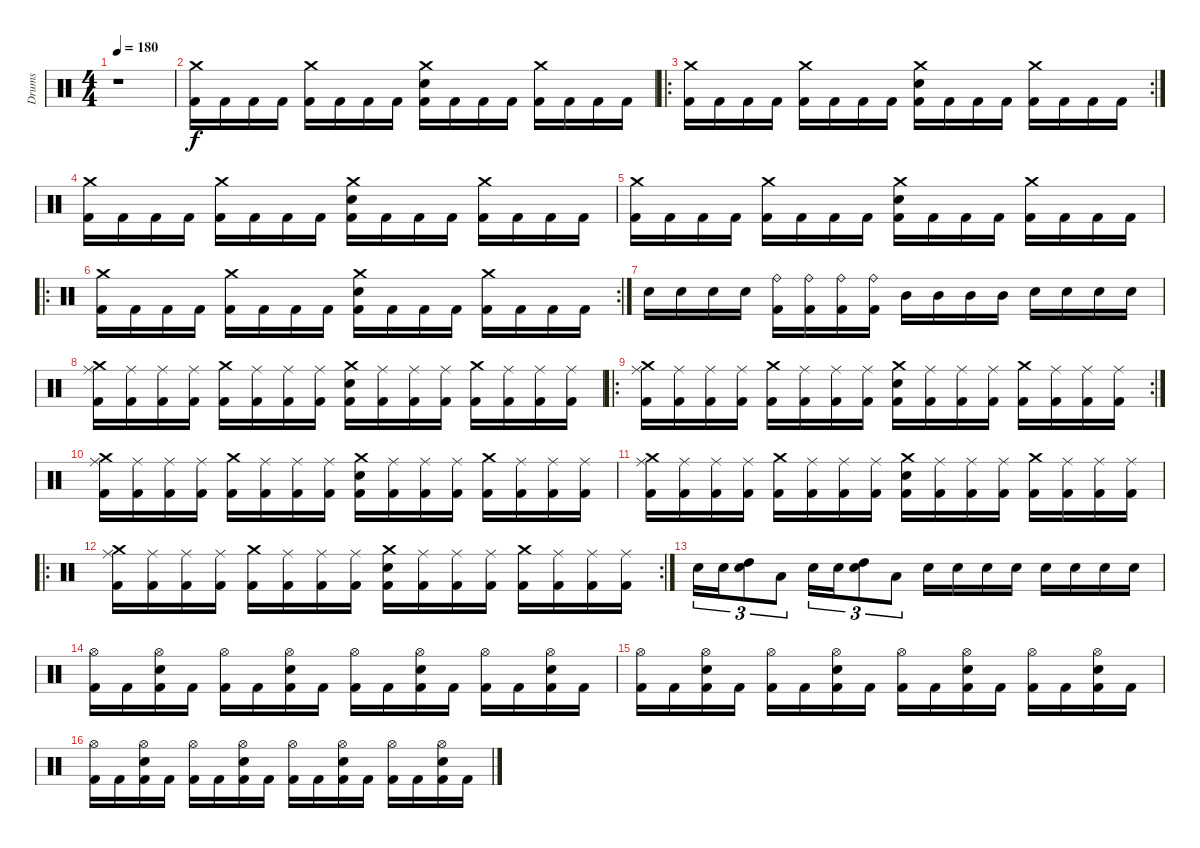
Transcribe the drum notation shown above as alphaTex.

\track ("Drums" "Drums") {instrument percussion}
\staff {score}
\articulation defaults
\ts (4 4)
\tempo 180
\clef neutral
\ks c
r.1{dy f} |
("Crash medium (hit)" "Kick (hit) 2").16 "Kick (hit) 2".16 "Kick (hit) 2".16 "Kick (hit) 2".16 ("Crash medium (hit)" "Kick (hit) 2").16 "Kick (hit) 2".16 "Kick (hit) 2".16 "Kick (hit) 2".16 ("Crash medium (hit)" "Electric Snare (hit)" "Kick (hit) 2").16 "Kick (hit) 2".16 "Kick (hit) 2".16 "Kick (hit) 2".16 ("Crash medium (hit)" "Kick (hit) 2").16 "Kick (hit) 2".16 "Kick (hit) 2".16 "Kick (hit) 2".16 |
\ro
\rc 2
("Crash medium (hit)" "Kick (hit) 2").16 "Kick (hit) 2".16 "Kick (hit) 2".16 "Kick (hit) 2".16 ("Crash medium (hit)" "Kick (hit) 2").16 "Kick (hit) 2".16 "Kick (hit) 2".16 "Kick (hit) 2".16 ("Crash medium (hit)" "Electric Snare (hit)" "Kick (hit) 2").16 "Kick (hit) 2".16 "Kick (hit) 2".16 "Kick (hit) 2".16 ("Crash medium (hit)" "Kick (hit) 2").16 "Kick (hit) 2".16 "Kick (hit) 2".16 "Kick (hit) 2".16 |
("Crash medium (hit)" "Kick (hit) 2").16 "Kick (hit) 2".16 "Kick (hit) 2".16 "Kick (hit) 2".16 ("Crash medium (hit)" "Kick (hit) 2").16 "Kick (hit) 2".16 "Kick (hit) 2".16 "Kick (hit) 2".16 ("Crash medium (hit)" "Electric Snare (hit)" "Kick (hit) 2").16 "Kick (hit) 2".16 "Kick (hit) 2".16 "Kick (hit) 2".16 ("Crash medium (hit)" "Kick (hit) 2").16 "Kick (hit) 2".16 "Kick (hit) 2".16 "Kick (hit) 2".16 |
("Crash medium (hit)" "Kick (hit) 2").16 "Kick (hit) 2".16 "Kick (hit) 2".16 "Kick (hit) 2".16 ("Crash medium (hit)" "Kick (hit) 2").16 "Kick (hit) 2".16 "Kick (hit) 2".16 "Kick (hit) 2".16 ("Crash medium (hit)" "Electric Snare (hit)" "Kick (hit) 2").16 "Kick (hit) 2".16 "Kick (hit) 2".16 "Kick (hit) 2".16 ("Crash medium (hit)" "Kick (hit) 2").16 "Kick (hit) 2".16 "Kick (hit) 2".16 "Kick (hit) 2".16 |
\ro
\rc 2
("Crash medium (hit)" "Kick (hit) 2").16 "Kick (hit) 2".16 "Kick (hit) 2".16 "Kick (hit) 2".16 ("Crash medium (hit)" "Kick (hit) 2").16 "Kick (hit) 2".16 "Kick (hit) 2".16 "Kick (hit) 2".16 ("Crash medium (hit)" "Electric Snare (hit)" "Kick (hit) 2").16 "Kick (hit) 2".16 "Kick (hit) 2".16 "Kick (hit) 2".16 ("Crash medium (hit)" "Kick (hit) 2").16 "Kick (hit) 2".16 "Kick (hit) 2".16 "Kick (hit) 2".16 |
"Electric Snare (hit)".16 "Electric Snare (hit)".16 "Electric Snare (hit)".16 "Electric Snare (hit)".16 ("Ride (bell)" "Kick (hit) 2").16 ("Ride (bell)" "Kick (hit) 2").16 ("Ride (bell)" "Kick (hit) 2").16 ("Ride (bell)" "Kick (hit) 2").16 "Mid Tom (hit)".16 "Mid Tom (hit)".16 "Mid Tom (hit)".16 "Mid Tom (hit)".16 "Electric Snare (hit)".16 "Electric Snare (hit)".16 "Electric Snare (hit)".16 "Electric Snare (hit)".16 |
("Crash medium (hit)" "Ride (middle)" "Kick (hit) 2").16 ("Ride (middle)" "Kick (hit) 2").16 ("Ride (middle)" "Kick (hit) 2").16 ("Ride (middle)" "Kick (hit) 2").16 ("Crash medium (hit)" "Kick (hit) 2").16 ("Ride (middle)" "Kick (hit) 2").16 ("Ride (middle)" "Kick (hit) 2").16 ("Ride (middle)" "Kick (hit) 2").16 ("Crash medium (hit)" "Electric Snare (hit)" "Kick (hit) 2").16 ("Ride (middle)" "Kick (hit) 2").16 ("Ride (middle)" "Kick (hit) 2").16 ("Ride (middle)" "Kick (hit) 2").16 ("Crash medium (hit)" "Kick (hit) 2").16 ("Ride (middle)" "Kick (hit) 2").16 ("Ride (middle)" "Kick (hit) 2").16 ("Ride (middle)" "Kick (hit) 2").16 |
\ro
\rc 2
("Crash medium (hit)" "Ride (middle)" "Kick (hit) 2").16 ("Ride (middle)" "Kick (hit) 2").16 ("Ride (middle)" "Kick (hit) 2").16 ("Ride (middle)" "Kick (hit) 2").16 ("Crash medium (hit)" "Kick (hit) 2").16 ("Ride (middle)" "Kick (hit) 2").16 ("Ride (middle)" "Kick (hit) 2").16 ("Ride (middle)" "Kick (hit) 2").16 ("Crash medium (hit)" "Electric Snare (hit)" "Kick (hit) 2").16 ("Ride (middle)" "Kick (hit) 2").16 ("Ride (middle)" "Kick (hit) 2").16 ("Ride (middle)" "Kick (hit) 2").16 ("Crash medium (hit)" "Kick (hit) 2").16 ("Ride (middle)" "Kick (hit) 2").16 ("Ride (middle)" "Kick (hit) 2").16 ("Ride (middle)" "Kick (hit) 2").16 |
("Crash medium (hit)" "Ride (middle)" "Kick (hit) 2").16 ("Ride (middle)" "Kick (hit) 2").16 ("Ride (middle)" "Kick (hit) 2").16 ("Ride (middle)" "Kick (hit) 2").16 ("Crash medium (hit)" "Kick (hit) 2").16 ("Ride (middle)" "Kick (hit) 2").16 ("Ride (middle)" "Kick (hit) 2").16 ("Ride (middle)" "Kick (hit) 2").16 ("Crash medium (hit)" "Electric Snare (hit)" "Kick (hit) 2").16 ("Ride (middle)" "Kick (hit) 2").16 ("Ride (middle)" "Kick (hit) 2").16 ("Ride (middle)" "Kick (hit) 2").16 ("Crash medium (hit)" "Kick (hit) 2").16 ("Ride (middle)" "Kick (hit) 2").16 ("Ride (middle)" "Kick (hit) 2").16 ("Ride (middle)" "Kick (hit) 2").16 |
("Crash medium (hit)" "Ride (middle)" "Kick (hit) 2").16 ("Ride (middle)" "Kick (hit) 2").16 ("Ride (middle)" "Kick (hit) 2").16 ("Ride (middle)" "Kick (hit) 2").16 ("Crash medium (hit)" "Kick (hit) 2").16 ("Ride (middle)" "Kick (hit) 2").16 ("Ride (middle)" "Kick (hit) 2").16 ("Ride (middle)" "Kick (hit) 2").16 ("Crash medium (hit)" "Electric Snare (hit)" "Kick (hit) 2").16 ("Ride (middle)" "Kick (hit) 2").16 ("Ride (middle)" "Kick (hit) 2").16 ("Ride (middle)" "Kick (hit) 2").16 ("Crash medium (hit)" "Kick (hit) 2").16 ("Ride (middle)" "Kick (hit) 2").16 ("Ride (middle)" "Kick (hit) 2").16 ("Ride (middle)" "Kick (hit) 2").16 |
\ro
\rc 2
("Crash medium (hit)" "Ride (middle)" "Kick (hit) 2").16 ("Ride (middle)" "Kick (hit) 2").16 ("Ride (middle)" "Kick (hit) 2").16 ("Ride (middle)" "Kick (hit) 2").16 ("Crash medium (hit)" "Kick (hit) 2").16 ("Ride (middle)" "Kick (hit) 2").16 ("Ride (middle)" "Kick (hit) 2").16 ("Ride (middle)" "Kick (hit) 2").16 ("Crash medium (hit)" "Electric Snare (hit)" "Kick (hit) 2").16 ("Ride (middle)" "Kick (hit) 2").16 ("Ride (middle)" "Kick (hit) 2").16 ("Ride (middle)" "Kick (hit) 2").16 ("Crash medium (hit)" "Kick (hit) 2").16 ("Ride (middle)" "Kick (hit) 2").16 ("Ride (middle)" "Kick (hit) 2").16 ("Ride (middle)" "Kick (hit) 2").16 |
"Electric Snare (hit)".16{tu (3 2)} "Electric Snare (hit)".16{tu (3 2)} ("High Tom (hit)" "Electric Snare (hit)").8{tu (3 2)} "Low Tom (hit)".8{tu (3 2)} "Electric Snare (hit)".16{tu (3 2)} "Electric Snare (hit)".16{tu (3 2)} ("High Tom (hit)" "Electric Snare (hit)").8{tu (3 2)} "Low Tom (hit)".8{tu (3 2)} "Electric Snare (hit)".16 "Electric Snare (hit)".16 "Electric Snare (hit)".16 "Electric Snare (hit)".16 "Electric Snare (hit)".16 "Electric Snare (hit)".16 "Electric Snare (hit)".16 "Electric Snare (hit)".16 |
("Hi-Hat (open)" "Kick (hit) 2").16 "Kick (hit) 2".16 ("Hi-Hat (open)" "Electric Snare (hit)" "Kick (hit) 2").16 "Kick (hit) 2".16 ("Hi-Hat (open)" "Kick (hit) 2").16 "Kick (hit) 2".16 ("Hi-Hat (open)" "Electric Snare (hit)" "Kick (hit) 2").16 "Kick (hit) 2".16 ("Hi-Hat (open)" "Kick (hit) 2").16 "Kick (hit) 2".16 ("Hi-Hat (open)" "Electric Snare (hit)" "Kick (hit) 2").16 "Kick (hit) 2".16 ("Hi-Hat (open)" "Kick (hit) 2").16 "Kick (hit) 2".16 ("Hi-Hat (open)" "Electric Snare (hit)" "Kick (hit) 2").16 "Kick (hit) 2".16 |
("Hi-Hat (open)" "Kick (hit) 2").16 "Kick (hit) 2".16 ("Hi-Hat (open)" "Electric Snare (hit)" "Kick (hit) 2").16 "Kick (hit) 2".16 ("Hi-Hat (open)" "Kick (hit) 2").16 "Kick (hit) 2".16 ("Hi-Hat (open)" "Electric Snare (hit)" "Kick (hit) 2").16 "Kick (hit) 2".16 ("Hi-Hat (open)" "Kick (hit) 2").16 "Kick (hit) 2".16 ("Hi-Hat (open)" "Electric Snare (hit)" "Kick (hit) 2").16 "Kick (hit) 2".16 ("Hi-Hat (open)" "Kick (hit) 2").16 "Kick (hit) 2".16 ("Hi-Hat (open)" "Electric Snare (hit)" "Kick (hit) 2").16 "Kick (hit) 2".16 |
("Hi-Hat (open)" "Kick (hit) 2").16 "Kick (hit) 2".16 ("Hi-Hat (open)" "Electric Snare (hit)" "Kick (hit) 2").16 "Kick (hit) 2".16 ("Hi-Hat (open)" "Kick (hit) 2").16 "Kick (hit) 2".16 ("Hi-Hat (open)" "Electric Snare (hit)" "Kick (hit) 2").16 "Kick (hit) 2".16 ("Hi-Hat (open)" "Kick (hit) 2").16 "Kick (hit) 2".16 ("Hi-Hat (open)" "Electric Snare (hit)" "Kick (hit) 2").16 "Kick (hit) 2".16 ("Hi-Hat (open)" "Kick (hit) 2").16 "Kick (hit) 2".16 ("Hi-Hat (open)" "Electric Snare (hit)" "Kick (hit) 2").16 "Kick (hit) 2".16
